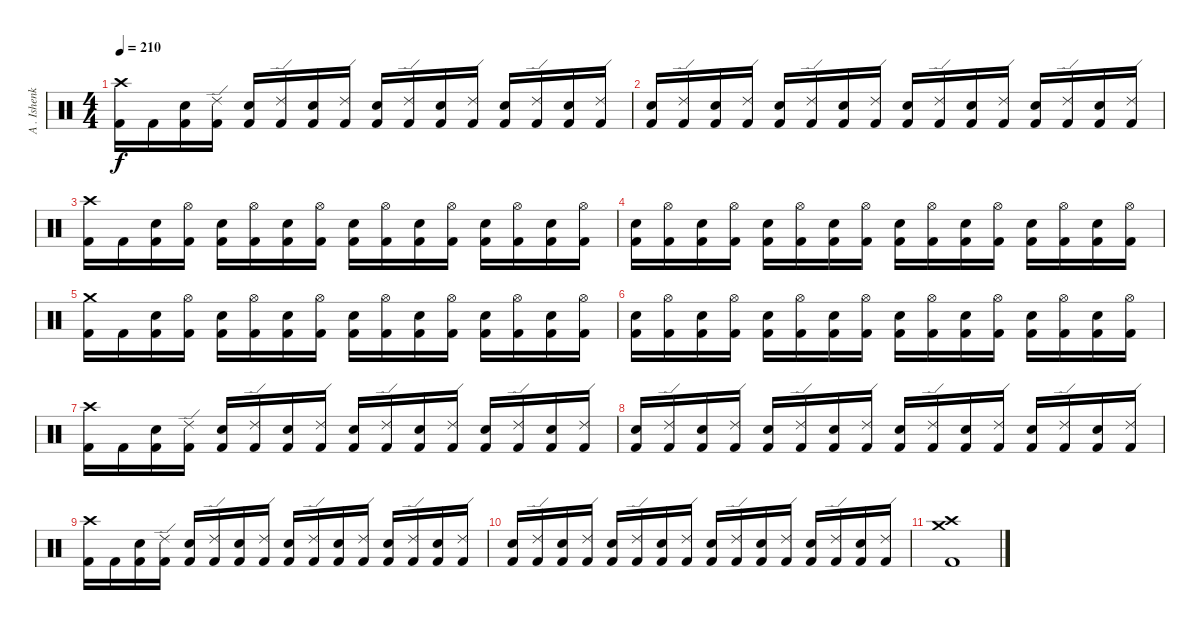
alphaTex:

\track ("A . Ishenko" "A . Ishenk") {instrument percussion}
\staff {score}
\articulation defaults
\ts (4 4)
\tempo 210
\clef neutral
\ks c
("Crash high (hit)" "Kick (hit) 2").16{dy f} "Kick (hit) 2".16 ("Electric Snare (hit)" "Kick (hit) 2").16 ("Ride (edge) 2" "Kick (hit) 2").16 ("Electric Snare (hit)" "Kick (hit) 2").16 ("Ride (edge) 2" "Kick (hit) 2").16 ("Electric Snare (hit)" "Kick (hit) 2").16 ("Ride (edge) 2" "Kick (hit) 2").16 ("Electric Snare (hit)" "Kick (hit) 2").16 ("Ride (edge) 2" "Kick (hit) 2").16 ("Electric Snare (hit)" "Kick (hit) 2").16 ("Ride (edge) 2" "Kick (hit) 2").16 ("Electric Snare (hit)" "Kick (hit) 2").16 ("Ride (edge) 2" "Kick (hit) 2").16 ("Electric Snare (hit)" "Kick (hit) 2").16 ("Ride (edge) 2" "Kick (hit) 2").16 |
("Electric Snare (hit)" "Kick (hit) 2").16 ("Ride (edge) 2" "Kick (hit) 2").16 ("Electric Snare (hit)" "Kick (hit) 2").16 ("Ride (edge) 2" "Kick (hit) 2").16 ("Electric Snare (hit)" "Kick (hit) 2").16 ("Ride (edge) 2" "Kick (hit) 2").16 ("Electric Snare (hit)" "Kick (hit) 2").16 ("Ride (edge) 2" "Kick (hit) 2").16 ("Electric Snare (hit)" "Kick (hit) 2").16 ("Ride (edge) 2" "Kick (hit) 2").16 ("Electric Snare (hit)" "Kick (hit) 2").16 ("Ride (edge) 2" "Kick (hit) 2").16 ("Electric Snare (hit)" "Kick (hit) 2").16 ("Ride (edge) 2" "Kick (hit) 2").16 ("Electric Snare (hit)" "Kick (hit) 2").16 ("Ride (edge) 2" "Kick (hit) 2").16 |
("Crash high (hit)" "Kick (hit) 2").16 "Kick (hit) 2".16 ("Electric Snare (hit)" "Kick (hit) 2").16 ("Hi-Hat (open)" "Kick (hit) 2").16 ("Electric Snare (hit)" "Kick (hit) 2").16 ("Hi-Hat (open)" "Kick (hit) 2").16 ("Electric Snare (hit)" "Kick (hit) 2").16 ("Hi-Hat (open)" "Kick (hit) 2").16 ("Electric Snare (hit)" "Kick (hit) 2").16 ("Hi-Hat (open)" "Kick (hit) 2").16 ("Electric Snare (hit)" "Kick (hit) 2").16 ("Hi-Hat (open)" "Kick (hit) 2").16 ("Electric Snare (hit)" "Kick (hit) 2").16 ("Hi-Hat (open)" "Kick (hit) 2").16 ("Electric Snare (hit)" "Kick (hit) 2").16 ("Hi-Hat (open)" "Kick (hit) 2").16 |
("Electric Snare (hit)" "Kick (hit) 2").16 ("Hi-Hat (open)" "Kick (hit) 2").16 ("Electric Snare (hit)" "Kick (hit) 2").16 ("Hi-Hat (open)" "Kick (hit) 2").16 ("Electric Snare (hit)" "Kick (hit) 2").16 ("Hi-Hat (open)" "Kick (hit) 2").16 ("Electric Snare (hit)" "Kick (hit) 2").16 ("Hi-Hat (open)" "Kick (hit) 2").16 ("Electric Snare (hit)" "Kick (hit) 2").16 ("Hi-Hat (open)" "Kick (hit) 2").16 ("Electric Snare (hit)" "Kick (hit) 2").16 ("Hi-Hat (open)" "Kick (hit) 2").16 ("Electric Snare (hit)" "Kick (hit) 2").16 ("Hi-Hat (open)" "Kick (hit) 2").16 ("Electric Snare (hit)" "Kick (hit) 2").16 ("Hi-Hat (open)" "Kick (hit) 2").16 |
("Crash medium (hit)" "Kick (hit) 2").16 "Kick (hit) 2".16 ("Electric Snare (hit)" "Kick (hit) 2").16 ("Hi-Hat (open)" "Kick (hit) 2").16 ("Electric Snare (hit)" "Kick (hit) 2").16 ("Hi-Hat (open)" "Kick (hit) 2").16 ("Electric Snare (hit)" "Kick (hit) 2").16 ("Hi-Hat (open)" "Kick (hit) 2").16 ("Electric Snare (hit)" "Kick (hit) 2").16 ("Hi-Hat (open)" "Kick (hit) 2").16 ("Electric Snare (hit)" "Kick (hit) 2").16 ("Hi-Hat (open)" "Kick (hit) 2").16 ("Electric Snare (hit)" "Kick (hit) 2").16 ("Hi-Hat (open)" "Kick (hit) 2").16 ("Electric Snare (hit)" "Kick (hit) 2").16 ("Hi-Hat (open)" "Kick (hit) 2").16 |
("Electric Snare (hit)" "Kick (hit) 2").16 ("Hi-Hat (open)" "Kick (hit) 2").16 ("Electric Snare (hit)" "Kick (hit) 2").16 ("Hi-Hat (open)" "Kick (hit) 2").16 ("Electric Snare (hit)" "Kick (hit) 2").16 ("Hi-Hat (open)" "Kick (hit) 2").16 ("Electric Snare (hit)" "Kick (hit) 2").16 ("Hi-Hat (open)" "Kick (hit) 2").16 ("Electric Snare (hit)" "Kick (hit) 2").16 ("Hi-Hat (open)" "Kick (hit) 2").16 ("Electric Snare (hit)" "Kick (hit) 2").16 ("Hi-Hat (open)" "Kick (hit) 2").16 ("Electric Snare (hit)" "Kick (hit) 2").16 ("Hi-Hat (open)" "Kick (hit) 2").16 ("Electric Snare (hit)" "Kick (hit) 2").16 ("Hi-Hat (open)" "Kick (hit) 2").16 |
("Crash high (hit)" "Kick (hit) 2").16 "Kick (hit) 2".16 ("Electric Snare (hit)" "Kick (hit) 2").16 ("Ride (edge) 2" "Kick (hit) 2").16 ("Electric Snare (hit)" "Kick (hit) 2").16 ("Ride (edge) 2" "Kick (hit) 2").16 ("Electric Snare (hit)" "Kick (hit) 2").16 ("Ride (edge) 2" "Kick (hit) 2").16 ("Electric Snare (hit)" "Kick (hit) 2").16 ("Ride (edge) 2" "Kick (hit) 2").16 ("Electric Snare (hit)" "Kick (hit) 2").16 ("Ride (edge) 2" "Kick (hit) 2").16 ("Electric Snare (hit)" "Kick (hit) 2").16 ("Ride (edge) 2" "Kick (hit) 2").16 ("Electric Snare (hit)" "Kick (hit) 2").16 ("Ride (edge) 2" "Kick (hit) 2").16 |
("Electric Snare (hit)" "Kick (hit) 2").16 ("Ride (edge) 2" "Kick (hit) 2").16 ("Electric Snare (hit)" "Kick (hit) 2").16 ("Ride (edge) 2" "Kick (hit) 2").16 ("Electric Snare (hit)" "Kick (hit) 2").16 ("Ride (edge) 2" "Kick (hit) 2").16 ("Electric Snare (hit)" "Kick (hit) 2").16 ("Ride (edge) 2" "Kick (hit) 2").16 ("Electric Snare (hit)" "Kick (hit) 2").16 ("Ride (edge) 2" "Kick (hit) 2").16 ("Electric Snare (hit)" "Kick (hit) 2").16 ("Ride (edge) 2" "Kick (hit) 2").16 ("Electric Snare (hit)" "Kick (hit) 2").16 ("Ride (edge) 2" "Kick (hit) 2").16 ("Electric Snare (hit)" "Kick (hit) 2").16 ("Ride (edge) 2" "Kick (hit) 2").16 |
("Crash high (hit)" "Kick (hit) 2").16 "Kick (hit) 2".16 ("Electric Snare (hit)" "Kick (hit) 2").16 ("Ride (edge) 2" "Kick (hit) 2").16 ("Electric Snare (hit)" "Kick (hit) 2").16 ("Ride (edge) 2" "Kick (hit) 2").16 ("Electric Snare (hit)" "Kick (hit) 2").16 ("Ride (edge) 2" "Kick (hit) 2").16 ("Electric Snare (hit)" "Kick (hit) 2").16 ("Ride (edge) 2" "Kick (hit) 2").16 ("Electric Snare (hit)" "Kick (hit) 2").16 ("Ride (edge) 2" "Kick (hit) 2").16 ("Electric Snare (hit)" "Kick (hit) 2").16 ("Ride (edge) 2" "Kick (hit) 2").16 ("Electric Snare (hit)" "Kick (hit) 2").16 ("Ride (edge) 2" "Kick (hit) 2").16 |
("Electric Snare (hit)" "Kick (hit) 2").16 ("Ride (edge) 2" "Kick (hit) 2").16 ("Electric Snare (hit)" "Kick (hit) 2").16 ("Ride (edge) 2" "Kick (hit) 2").16 ("Electric Snare (hit)" "Kick (hit) 2").16 ("Ride (edge) 2" "Kick (hit) 2").16 ("Electric Snare (hit)" "Kick (hit) 2").16 ("Ride (edge) 2" "Kick (hit) 2").16 ("Electric Snare (hit)" "Kick (hit) 2").16 ("Ride (edge) 2" "Kick (hit) 2").16 ("Electric Snare (hit)" "Kick (hit) 2").16 ("Ride (edge) 2" "Kick (hit) 2").16 ("Electric Snare (hit)" "Kick (hit) 2").16 ("Ride (edge) 2" "Kick (hit) 2").16 ("Electric Snare (hit)" "Kick (hit) 2").16 ("Ride (edge) 2" "Kick (hit) 2").16 |
("Crash medium (hit)" "Crash high (hit)" "Kick (hit) 2").1
